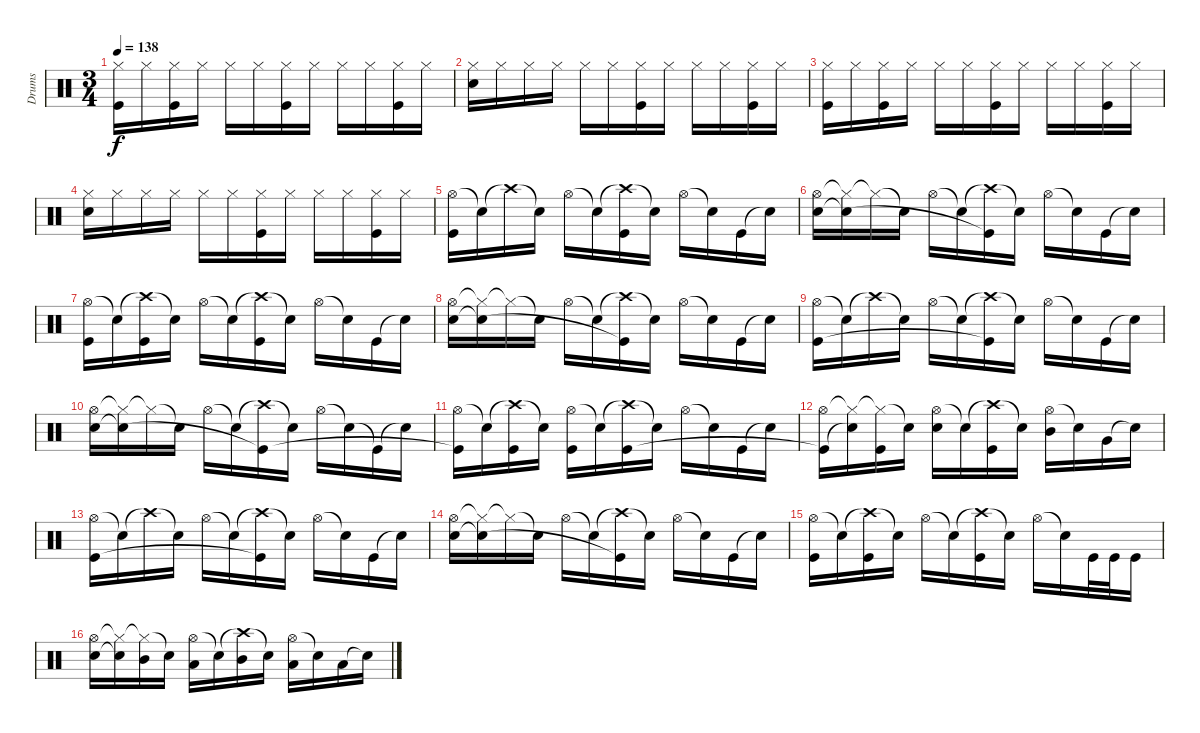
\track ("Drums" "Drums") {instrument percussion}
\staff {score}
\articulation defaults
\ts (3 4)
\tempo 138
\clef neutral
\ks c
("Hi-Hat (closed)" "Kick (hit)").16{dy f} "Hi-Hat (closed)".16 ("Hi-Hat (closed)" "Kick (hit)").16 "Hi-Hat (closed)".16 "Hi-Hat (closed)".16 "Hi-Hat (closed)".16 ("Hi-Hat (closed)" "Kick (hit)").16 "Hi-Hat (closed)".16 "Hi-Hat (closed)".16 "Hi-Hat (closed)".16 ("Hi-Hat (closed)" "Kick (hit)").16 "Hi-Hat (closed)".16 |
("Hi-Hat (closed)" "Electric Snare (hit)").16 "Hi-Hat (closed)".16 "Hi-Hat (closed)".16 "Hi-Hat (closed)".16 "Hi-Hat (closed)".16 "Hi-Hat (closed)".16 ("Hi-Hat (closed)" "Kick (hit)").16 "Hi-Hat (closed)".16 "Hi-Hat (closed)".16 "Hi-Hat (closed)".16 ("Hi-Hat (closed)" "Kick (hit)").16 "Hi-Hat (closed)".16 |
("Hi-Hat (closed)" "Kick (hit)").16 "Hi-Hat (closed)".16 ("Hi-Hat (closed)" "Kick (hit)").16 "Hi-Hat (closed)".16 "Hi-Hat (closed)".16 "Hi-Hat (closed)".16 ("Hi-Hat (closed)" "Kick (hit)").16 "Hi-Hat (closed)".16 "Hi-Hat (closed)".16 "Hi-Hat (closed)".16 ("Hi-Hat (closed)" "Kick (hit)").16 "Hi-Hat (closed)".16 |
("Hi-Hat (closed)" "Electric Snare (hit)").16 "Hi-Hat (closed)".16 "Hi-Hat (closed)".16 "Hi-Hat (closed)".16 "Hi-Hat (closed)".16 "Hi-Hat (closed)".16 ("Hi-Hat (closed)" "Kick (hit)").16 "Hi-Hat (closed)".16 "Hi-Hat (closed)".16 "Hi-Hat (closed)".16 ("Hi-Hat (closed)" "Kick (hit)").16 "Hi-Hat (closed)".16 |
("Hi-Hat (open)" "Kick (hit)").16 "Snare (hit)"{t}.16 "Crash high (hit)"{t}.16 "Snare (hit)"{t}.16 "Hi-Hat (open)".16 "Snare (hit)"{t}.16 ("Crash high (hit)"{t} "Kick (hit)").16 "Snare (hit)"{t}.16 "Hi-Hat (open)".16 "Snare (hit)"{t}.16 "Kick (hit)".16 "Snare (hit)"{t}.16 |
("Hi-Hat (open)" "Electric Snare (hit)").16 ("Hi-Hat (closed)"{t} "Snare (hit)"{t}).16 "Hi-Hat (closed)"{t}.16 "Snare (hit)"{t}.16 "Hi-Hat (open)".16 "Snare (hit)"{t}.16 ("Crash high (hit)"{t} "Kick (hit)"{t}).16 "Snare (hit)"{t}.16 "Hi-Hat (open)".16 "Snare (hit)"{t}.16 "Kick (hit)".16 "Snare (hit)"{t}.16 |
("Hi-Hat (open)" "Kick (hit)").16 "Snare (hit)"{t}.16 ("Crash high (hit)"{t} "Kick (hit)").16 "Snare (hit)"{t}.16 "Hi-Hat (open)".16 "Snare (hit)"{t}.16 ("Crash high (hit)"{t} "Kick (hit)").16 "Snare (hit)"{t}.16 "Hi-Hat (open)".16 "Snare (hit)"{t}.16 "Kick (hit)".16 "Snare (hit)"{t}.16 |
("Hi-Hat (open)" "Electric Snare (hit)").16 ("Hi-Hat (closed)"{t} "Snare (hit)"{t}).16 "Hi-Hat (closed)"{t}.16 "Snare (hit)"{t}.16 "Hi-Hat (open)".16 "Snare (hit)"{t}.16 ("Crash high (hit)"{t} "Kick (hit)"{t}).16 "Snare (hit)"{t}.16 "Hi-Hat (open)".16 "Snare (hit)"{t}.16 "Kick (hit)".16 "Snare (hit)"{t}.16 |
("Hi-Hat (open)" "Kick (hit)").16 "Snare (hit)"{t}.16 "Crash high (hit)"{t}.16 "Snare (hit)"{t}.16 "Hi-Hat (open)".16 "Snare (hit)"{t}.16 ("Crash high (hit)"{t} "Kick (hit)"{t}).16 "Snare (hit)"{t}.16 "Hi-Hat (open)".16 "Snare (hit)"{t}.16 "Kick (hit)".16 "Snare (hit)"{t}.16 |
("Hi-Hat (open)" "Electric Snare (hit)").16 ("Hi-Hat (closed)"{t} "Snare (hit)"{t}).16 "Hi-Hat (closed)"{t}.16 "Snare (hit)"{t}.16 "Hi-Hat (open)".16 "Snare (hit)"{t}.16 ("Crash high (hit)"{t} "Kick (hit)"{t}).16 "Snare (hit)"{t}.16 "Hi-Hat (open)".16 "Snare (hit)"{t}.16 "Kick (hit)"{t}.16 "Snare (hit)"{t}.16 |
("Hi-Hat (open)" "Kick (hit)"{t}).16 "Snare (hit)"{t}.16 ("Crash high (hit)"{t} "Kick (hit)").16 "Snare (hit)"{t}.16 ("Hi-Hat (open)" "Kick (hit)").16 "Snare (hit)"{t}.16 ("Crash high (hit)"{t} "Kick (hit)").16 "Snare (hit)"{t}.16 "Hi-Hat (open)".16 "Snare (hit)"{t}.16 "Kick (hit)".16 "Snare (hit)"{t}.16 |
("Hi-Hat (open)" "Kick (hit)"{t}).16 ("Hi-Hat (closed)"{t} "Snare (hit)"{t}).16 ("Hi-Hat (closed)"{t} "Kick (hit)").16 "Snare (hit)"{t}.16 ("Hi-Hat (open)" "Electric Snare (hit)").16 "Snare (hit)"{t}.16 ("Crash high (hit)"{t} "Kick (hit)").16 "Snare (hit)"{t}.16 ("Hi-Hat (open)" "Mid Tom (hit)").16 "Snare (hit)"{t}.16 "Very Low Tom (hit)".16 "Snare (hit)"{t}.16 |
("Hi-Hat (open)" "Kick (hit)").16 "Snare (hit)"{t}.16 "Crash high (hit)"{t}.16 "Snare (hit)"{t}.16 "Hi-Hat (open)".16 "Snare (hit)"{t}.16 ("Crash high (hit)"{t} "Kick (hit)"{t}).16 "Snare (hit)"{t}.16 "Hi-Hat (open)".16 "Snare (hit)"{t}.16 "Kick (hit)".16 "Snare (hit)"{t}.16 |
("Hi-Hat (open)" "Electric Snare (hit)").16 ("Hi-Hat (closed)"{t} "Snare (hit)"{t}).16 "Hi-Hat (closed)"{t}.16 "Snare (hit)"{t}.16 "Hi-Hat (open)".16 "Snare (hit)"{t}.16 ("Crash high (hit)"{t} "Kick (hit)"{t}).16 "Snare (hit)"{t}.16 "Hi-Hat (open)".16 "Snare (hit)"{t}.16 "Kick (hit)".16 "Snare (hit)"{t}.16 |
("Hi-Hat (open)" "Kick (hit)").16 "Snare (hit)"{t}.16 ("Crash high (hit)"{t} "Kick (hit)").16 "Snare (hit)"{t}.16 "Hi-Hat (open)".16 "Snare (hit)"{t}.16 ("Crash high (hit)"{t} "Kick (hit)").16 "Snare (hit)"{t}.16 "Hi-Hat (open)".16 "Snare (hit)"{t}.16 "Kick (hit)".32 "Kick (hit)".32 "Kick (hit)".16 |
("Hi-Hat (open)" "Electric Snare (hit)").16 ("Hi-Hat (closed)"{t} "Snare (hit)"{t}).16 ("Hi-Hat (closed)"{t} "Mid Tom (hit)").16 "Snare (hit)"{t}.16 ("Hi-Hat (open)" "Low Tom (hit)").16 "Snare (hit)"{t}.16 ("Crash high (hit)"{t} "Mid Tom (hit)").16 "Snare (hit)"{t}.16 ("Hi-Hat (open)" "Low Tom (hit)").16 "Snare (hit)"{t}.16 "Low Floor Tom (hit)".16 "Snare (hit)"{t}.16
